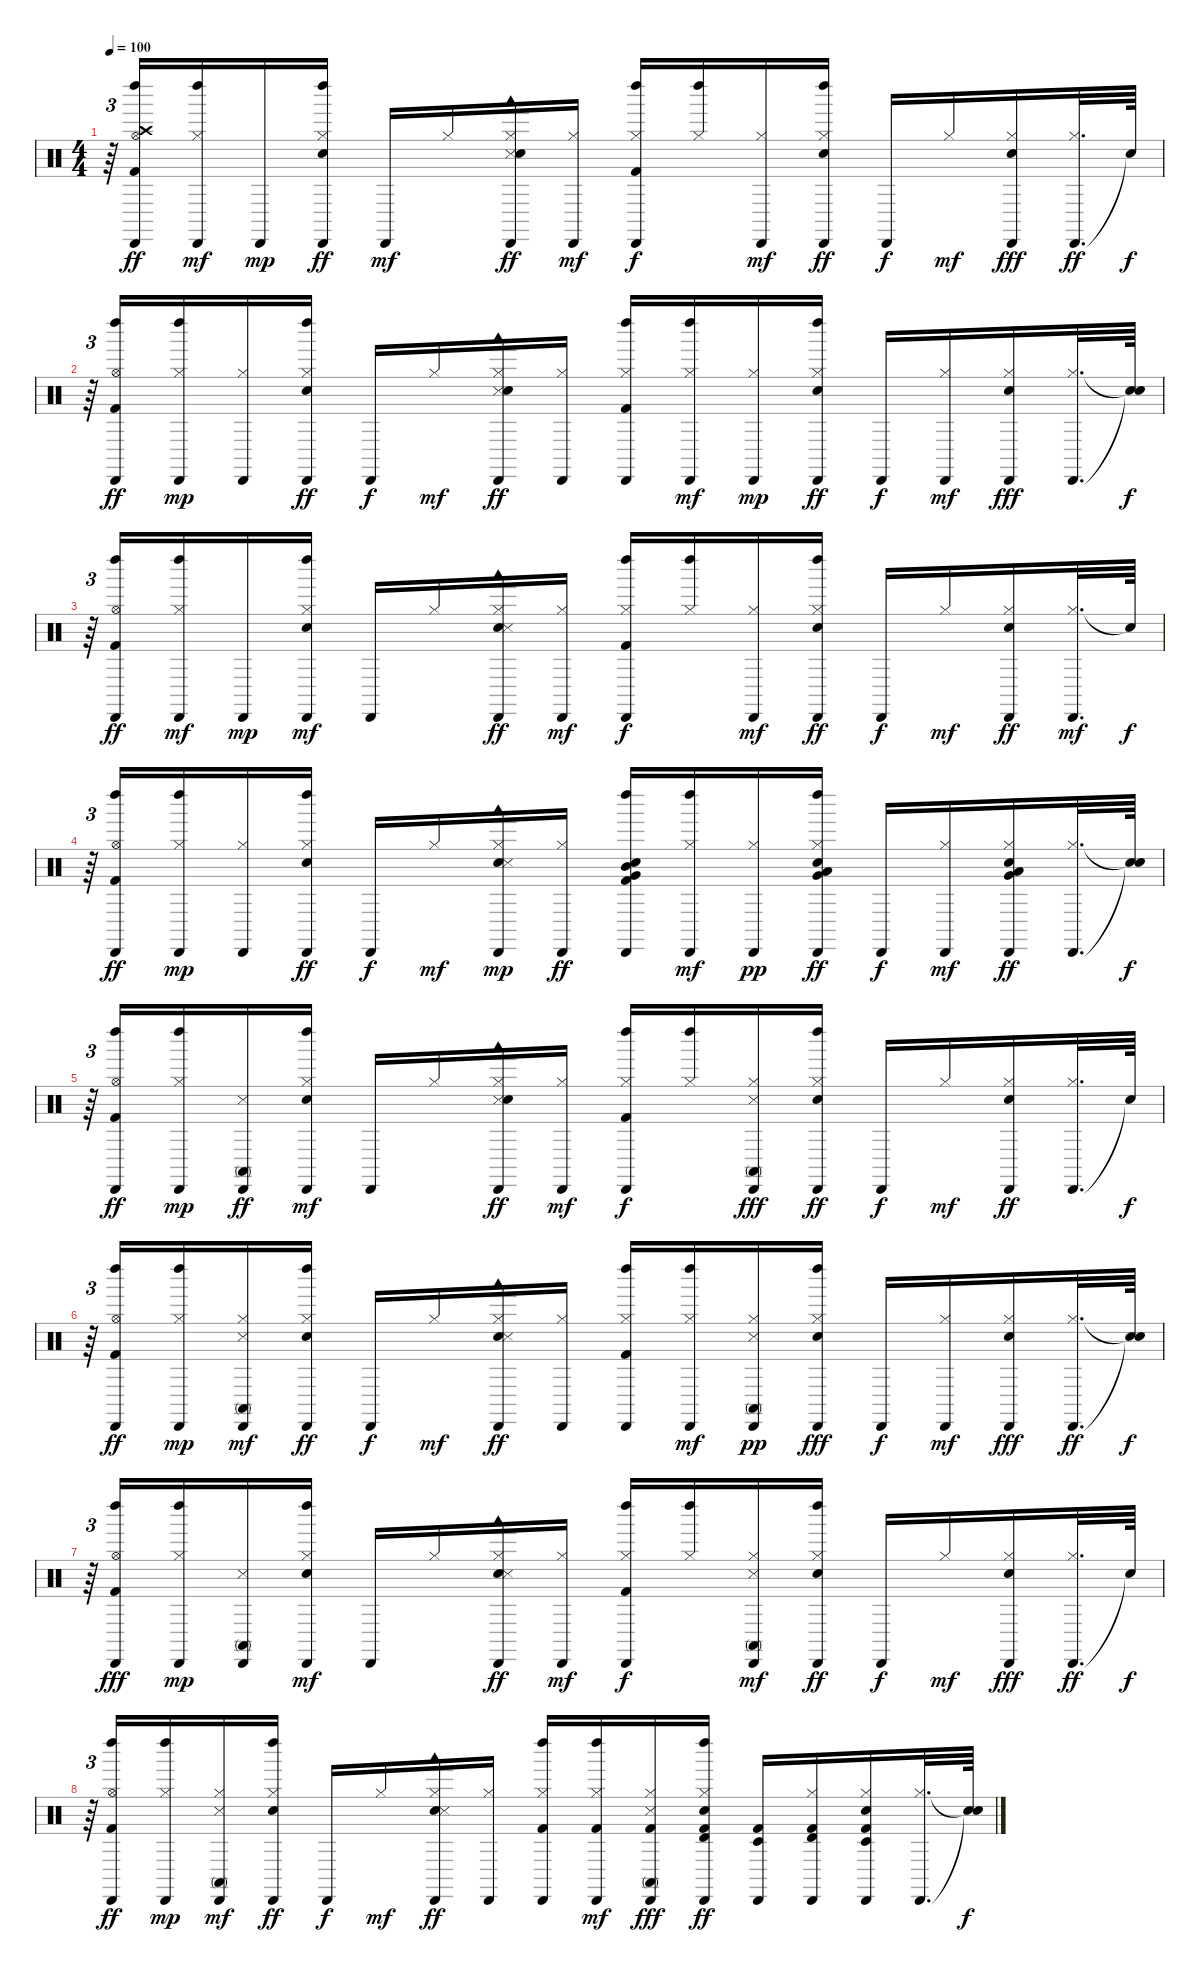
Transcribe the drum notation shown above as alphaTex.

\track "" {instrument percussion}
\staff {score}
\articulation defaults
\ts (4 4)
\tempo 100
\clef neutral
\ks c
r.64{tu (3 2) dy f} ("Hi-Hat (open)" "Crash high (hit)" "Kick (hit) 2" "Left Maraca (hit)" "Cabasa (hit)").16{dy ff} ("Hi-Hat (closed)" "Left Maraca (hit)" "Cabasa (hit)").16{dy mf} "Cabasa (hit)".16{dy mp} ("Cabasa (hit)" "Electric Snare (hit)" "Left Maraca (hit)" "Hi-Hat (closed)").16{dy ff} "Cabasa (hit)".16{dy mf} "Hi-Hat (closed)".16 ("Cabasa (hit)" "Woodblock low (hit)" "Snare (side stick) 3" "Hi-Hat (closed)" "Electric Snare (hit)").16{dy ff} ("Cabasa (hit)" "Hi-Hat (closed)").16{dy mf} ("Cabasa (hit)" "Left Maraca (hit)" "Hi-Hat (closed)" "Kick (hit) 2").16{dy f} ("Hi-Hat (closed)" "Left Maraca (hit)").16 ("Hi-Hat (closed)" "Cabasa (hit)").16{dy mf} ("Electric Snare (hit)" "Hi-Hat (closed)" "Left Maraca (hit)" "Cabasa (hit)").16{dy ff} "Cabasa (hit)".16{dy f} "Hi-Hat (closed)".16{dy mf} ("Cabasa (hit)" "Hi-Hat (closed)" "Electric Snare (hit)").16{dy fff} ("Cabasa (hit)" "Hi-Hat (closed)").32{d dy ff} "Snare (hit)"{t}.64{dy f} |
r.64{tu (3 2)} ("Hi-Hat (open)" "Cabasa (hit)" "Kick (hit) 2" "Left Maraca (hit)").16{dy ff} ("Cabasa (hit)" "Left Maraca (hit)" "Hi-Hat (closed)").16{dy mp} ("Hi-Hat (closed)" "Cabasa (hit)").16 ("Electric Snare (hit)" "Left Maraca (hit)" "Hi-Hat (closed)" "Cabasa (hit)").16{dy ff} "Cabasa (hit)".16{dy f} "Hi-Hat (closed)".16{dy mf} ("Snare (side stick) 3" "Electric Snare (hit)" "Cabasa (hit)" "Woodblock low (hit)" "Hi-Hat (closed)").16{dy ff} ("Hi-Hat (closed)" "Cabasa (hit)").16 ("Left Maraca (hit)" "Cabasa (hit)" "Hi-Hat (closed)" "Kick (hit) 2").16 ("Hi-Hat (closed)" "Cabasa (hit)" "Left Maraca (hit)").16{dy mf} ("Hi-Hat (closed)" "Cabasa (hit)").16{dy mp} ("Electric Snare (hit)" "Hi-Hat (closed)" "Cabasa (hit)" "Left Maraca (hit)").16{dy ff} "Cabasa (hit)".16{dy f} ("Cabasa (hit)" "Hi-Hat (closed)").16{dy mf} ("Cabasa (hit)" "Hi-Hat (closed)" "Electric Snare (hit)").16{dy fff} ("Cabasa (hit)" "Hi-Hat (closed)").32{d} ("Snare (hit)"{t} "Snare (hit)"{t}).64{dy f} |
r.64{tu (3 2)} ("Left Maraca (hit)" "Hi-Hat (open)" "Kick (hit) 2" "Cabasa (hit)").16{dy ff} ("Hi-Hat (closed)" "Cabasa (hit)" "Left Maraca (hit)").16{dy mf} "Cabasa (hit)".16{dy mp} ("Electric Snare (hit)" "Cabasa (hit)" "Hi-Hat (closed)" "Left Maraca (hit)").16{dy mf} "Cabasa (hit)".16 "Hi-Hat (closed)".16 ("Cabasa (hit)" "Woodblock low (hit)" "Hi-Hat (closed)" "Electric Snare (hit)" "Snare (side stick) 3").16{dy ff} ("Cabasa (hit)" "Hi-Hat (closed)").16{dy mf} ("Kick (hit) 2" "Left Maraca (hit)" "Hi-Hat (closed)" "Cabasa (hit)").16{dy f} ("Left Maraca (hit)" "Hi-Hat (closed)").16 ("Hi-Hat (closed)" "Cabasa (hit)").16{dy mf} ("Cabasa (hit)" "Left Maraca (hit)" "Electric Snare (hit)" "Hi-Hat (closed)").16{dy ff} "Cabasa (hit)".16{dy f} "Hi-Hat (closed)".16{dy mf} ("Cabasa (hit)" "Electric Snare (hit)" "Hi-Hat (closed)").16{dy ff} ("Hi-Hat (closed)" "Cabasa (hit)").32{d dy mf} "Snare (hit)"{t}.64{dy f} |
r.64{tu (3 2)} ("Left Maraca (hit)" "Cabasa (hit)" "Hi-Hat (open)" "Kick (hit) 2").16{dy ff} ("Cabasa (hit)" "Left Maraca (hit)" "Hi-Hat (closed)").16{dy mp} ("Hi-Hat (closed)" "Cabasa (hit)").16 ("Electric Snare (hit)" "Hi-Hat (closed)" "Left Maraca (hit)" "Cabasa (hit)").16{dy ff} "Cabasa (hit)".16{dy f} "Hi-Hat (closed)".16{dy mf} ("Hi-Hat (closed)" "Electric Snare (hit)" "Snare (side stick) 3" "Woodblock low (hit)" "Cabasa (hit)").16{dy mp} ("Hi-Hat (closed)" "Cabasa (hit)").16{dy ff} ("Left Maraca (hit)" "Mid Tom (hit)" "Electric Snare (hit)" "Cabasa (hit)" "Very Low Tom (hit)" "Kick (hit) 2").16 ("Left Maraca (hit)" "Hi-Hat (closed)" "Cabasa (hit)").16{dy mf} ("Cabasa (hit)" "Hi-Hat (closed)").16{dy pp} ("Cabasa (hit)" "Hi-Hat (closed)" "Very Low Tom (hit)" "Electric Snare (hit)" "Low Tom (hit)" "Left Maraca (hit)").16{dy ff} "Cabasa (hit)".16{dy f} ("Hi-Hat (closed)" "Cabasa (hit)").16{dy mf} ("Cabasa (hit)" "Low Floor Tom (hit)" "Very Low Tom (hit)" "Electric Snare (hit)" "Hi-Hat (closed)").16{dy ff} ("Hi-Hat (closed)" "Cabasa (hit)").32{d} ("Snare (hit)"{t} "Snare (hit)"{t}).64{dy f} |
r.64{tu (3 2)} ("Hi-Hat (open)" "Left Maraca (hit)" "Cabasa (hit)" "Kick (hit) 2").16{dy ff} ("Cabasa (hit)" "Hi-Hat (closed)" "Left Maraca (hit)").16{dy mp} ("Snare (side stick) 3" "Cabasa (hit)" "Conga high (mute)").16{dy ff} ("Electric Snare (hit)" "Cabasa (hit)" "Hi-Hat (closed)" "Left Maraca (hit)").16{dy mf} "Cabasa (hit)".16 "Hi-Hat (closed)".16 ("Cabasa (hit)" "Snare (side stick) 3" "Woodblock low (hit)" "Electric Snare (hit)" "Hi-Hat (closed)").16{dy ff} ("Hi-Hat (closed)" "Cabasa (hit)").16{dy mf} ("Left Maraca (hit)" "Kick (hit) 2" "Hi-Hat (closed)" "Cabasa (hit)").16{dy f} ("Hi-Hat (closed)" "Left Maraca (hit)").16 ("Conga high (mute)" "Cabasa (hit)" "Hi-Hat (closed)" "Snare (side stick) 3").16{dy fff} ("Left Maraca (hit)" "Cabasa (hit)" "Electric Snare (hit)" "Hi-Hat (closed)").16{dy ff} "Cabasa (hit)".16{dy f} "Hi-Hat (closed)".16{dy mf} ("Electric Snare (hit)" "Cabasa (hit)" "Hi-Hat (closed)").16{dy ff} ("Cabasa (hit)" "Hi-Hat (closed)").32{d} "Snare (hit)"{t}.64{dy f} |
r.64{tu (3 2)} ("Kick (hit) 2" "Hi-Hat (open)" "Cabasa (hit)" "Left Maraca (hit)").16{dy ff} ("Hi-Hat (closed)" "Cabasa (hit)" "Left Maraca (hit)").16{dy mp} ("Conga high (mute)" "Snare (side stick) 3" "Cabasa (hit)" "Hi-Hat (closed)").16{dy mf} ("Left Maraca (hit)" "Hi-Hat (closed)" "Cabasa (hit)" "Electric Snare (hit)").16{dy ff} "Cabasa (hit)".16{dy f} "Hi-Hat (closed)".16{dy mf} ("Electric Snare (hit)" "Hi-Hat (closed)" "Cabasa (hit)" "Woodblock low (hit)" "Snare (side stick) 3").16{dy ff} ("Cabasa (hit)" "Hi-Hat (closed)").16 ("Left Maraca (hit)" "Hi-Hat (closed)" "Cabasa (hit)" "Kick (hit) 2").16 ("Left Maraca (hit)" "Cabasa (hit)" "Hi-Hat (closed)").16{dy mf} ("Snare (side stick) 3" "Conga high (mute)" "Cabasa (hit)" "Hi-Hat (closed)").16{dy pp} ("Cabasa (hit)" "Hi-Hat (closed)" "Left Maraca (hit)" "Electric Snare (hit)").16{dy fff} "Cabasa (hit)".16{dy f} ("Hi-Hat (closed)" "Cabasa (hit)").16{dy mf} ("Cabasa (hit)" "Hi-Hat (closed)" "Electric Snare (hit)").16{dy fff} ("Hi-Hat (closed)" "Cabasa (hit)").32{d dy ff} ("Snare (hit)"{t} "Snare (hit)"{t}).64{dy f} |
r.64{tu (3 2)} ("Kick (hit) 2" "Hi-Hat (open)" "Cabasa (hit)" "Left Maraca (hit)").16{dy fff} ("Left Maraca (hit)" "Cabasa (hit)" "Hi-Hat (closed)").16{dy mp} ("Conga high (mute)" "Snare (side stick) 3" "Cabasa (hit)").16 ("Electric Snare (hit)" "Hi-Hat (closed)" "Cabasa (hit)" "Left Maraca (hit)").16{dy mf} "Cabasa (hit)".16 "Hi-Hat (closed)".16 ("Hi-Hat (closed)" "Cabasa (hit)" "Electric Snare (hit)" "Woodblock low (hit)" "Snare (side stick) 3").16{dy ff} ("Hi-Hat (closed)" "Cabasa (hit)").16{dy mf} ("Cabasa (hit)" "Left Maraca (hit)" "Kick (hit) 2" "Hi-Hat (closed)").16{dy f} ("Hi-Hat (closed)" "Left Maraca (hit)").16 ("Hi-Hat (closed)" "Snare (side stick) 3" "Conga high (mute)" "Cabasa (hit)").16{dy mf} ("Cabasa (hit)" "Left Maraca (hit)" "Hi-Hat (closed)" "Electric Snare (hit)").16{dy ff} "Cabasa (hit)".16{dy f} "Hi-Hat (closed)".16{dy mf} ("Hi-Hat (closed)" "Cabasa (hit)" "Electric Snare (hit)").16{dy fff} ("Cabasa (hit)" "Hi-Hat (closed)").32{d dy ff} "Snare (hit)"{t}.64{dy f} |
r.64{tu (3 2)} ("Left Maraca (hit)" "Kick (hit) 2" "Cabasa (hit)" "Hi-Hat (open)").16{dy ff} ("Left Maraca (hit)" "Hi-Hat (closed)" "Cabasa (hit)").16{dy mp} ("Conga high (mute)" "Snare (side stick) 3" "Cabasa (hit)" "Hi-Hat (closed)").16{dy mf} ("Electric Snare (hit)" "Cabasa (hit)" "Left Maraca (hit)" "Hi-Hat (closed)").16{dy ff} "Cabasa (hit)".16{dy f} "Hi-Hat (closed)".16{dy mf} ("Hi-Hat (closed)" "Cabasa (hit)" "Woodblock low (hit)" "Electric Snare (hit)" "Snare (side stick) 3").16{dy ff} ("Cabasa (hit)" "Hi-Hat (closed)").16 ("Cabasa (hit)" "Kick (hit) 2" "Left Maraca (hit)" "Hi-Hat (closed)").16 ("Kick (hit) 2" "Cabasa (hit)" "Left Maraca (hit)" "Hi-Hat (closed)").16{dy mf} ("Cabasa (hit)" "Hi-Hat (closed)" "Kick (hit) 2" "Conga high (mute)" "Snare (side stick) 3").16{dy fff} ("Timbale high (hit)" "Hi-Hat (closed)" "Kick (hit) 2" "Electric Snare (hit)" "Left Maraca (hit)" "Cabasa (hit)").16{dy ff} ("Kick (hit) 2" "Cabasa (hit)" "Timbale low (hit)").16 ("Cabasa (hit)" "Hi-Hat (closed)" "Timbale high (hit)" "Kick (hit) 2").16 ("Kick (hit) 2" "Timbale low (hit)" "Electric Snare (hit)" "Hi-Hat (closed)" "Cabasa (hit)").16 ("Hi-Hat (closed)" "Cabasa (hit)").32{d} ("Snare (hit)"{t} "Snare (hit)"{t}).64{dy f}
